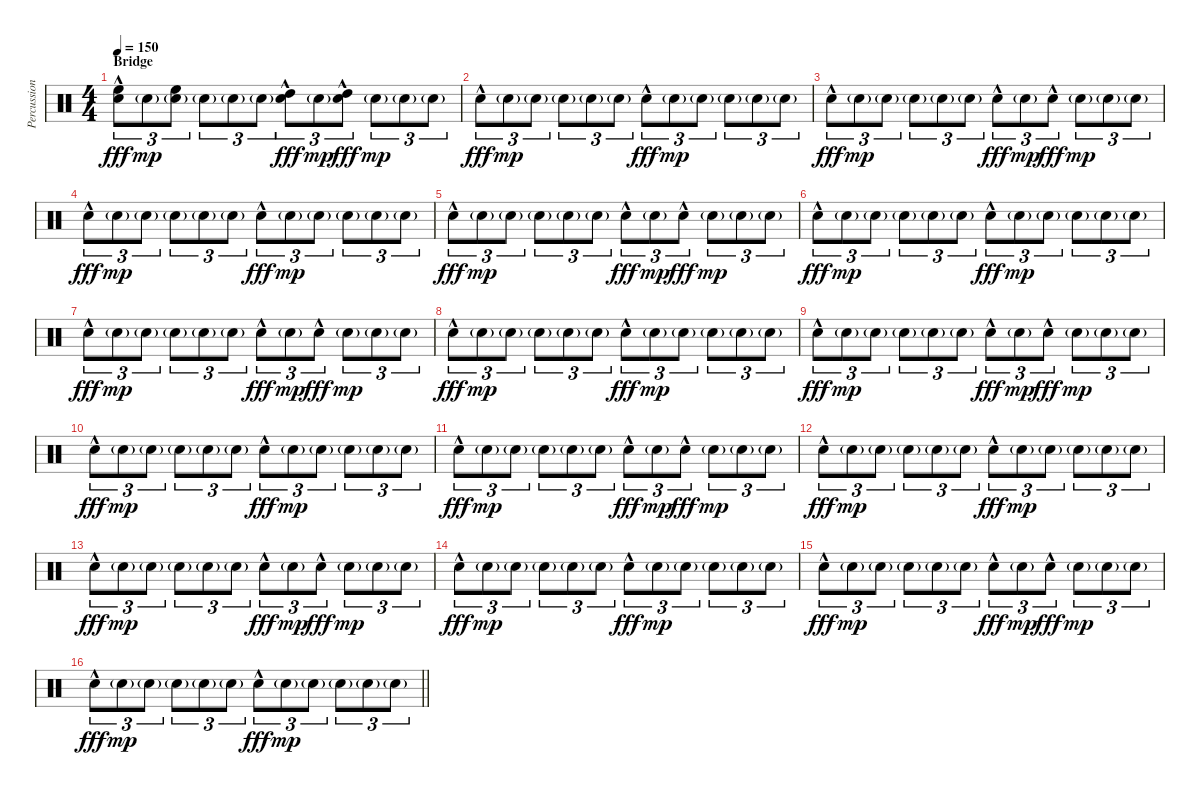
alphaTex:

\track ("Percussion" "Percussion") {instrument percussion}
\staff {score}
\articulation defaults
\ts (4 4)
\section ("" "Bridge")
\tempo 150
\clef neutral
\ks c
("High Floor Tom (hit)"{hac} "Electric Snare (hit)"{hac}).8{tu (3 2) dy fff} "Electric Snare (hit)"{g}.8{tu (3 2) dy mp} ("High Floor Tom (hit)" "Electric Snare (hit)"{g}).8{tu (3 2)} "Electric Snare (hit)"{g}.8{tu (3 2)} "Electric Snare (hit)"{g}.8{tu (3 2)} "Electric Snare (hit)"{g}.8{tu (3 2)} ("High Tom (hit)" "Electric Snare (hit)"{hac}).8{tu (3 2) dy fff} "Electric Snare (hit)"{g}.8{tu (3 2) dy mp} ("High Tom (hit)" "Electric Snare (hit)"{hac}).8{tu (3 2) dy fff} "Electric Snare (hit)"{g}.8{tu (3 2) dy mp} "Electric Snare (hit)"{g}.8{tu (3 2)} "Electric Snare (hit)"{g}.8{tu (3 2)} |
"Electric Snare (hit)"{hac}.8{tu (3 2) dy fff} "Electric Snare (hit)"{g}.8{tu (3 2) dy mp} "Electric Snare (hit)"{g}.8{tu (3 2)} "Electric Snare (hit)"{g}.8{tu (3 2)} "Electric Snare (hit)"{g}.8{tu (3 2)} "Electric Snare (hit)"{g}.8{tu (3 2)} "Electric Snare (hit)"{hac}.8{tu (3 2) dy fff} "Electric Snare (hit)"{g}.8{tu (3 2) dy mp} "Electric Snare (hit)"{g}.8{tu (3 2)} "Electric Snare (hit)"{g}.8{tu (3 2)} "Electric Snare (hit)"{g}.8{tu (3 2)} "Electric Snare (hit)"{g}.8{tu (3 2)} |
"Electric Snare (hit)"{hac}.8{tu (3 2) dy fff} "Electric Snare (hit)"{g}.8{tu (3 2) dy mp} "Electric Snare (hit)"{g}.8{tu (3 2)} "Electric Snare (hit)"{g}.8{tu (3 2)} "Electric Snare (hit)"{g}.8{tu (3 2)} "Electric Snare (hit)"{g}.8{tu (3 2)} "Electric Snare (hit)"{hac}.8{tu (3 2) dy fff} "Electric Snare (hit)"{g}.8{tu (3 2) dy mp} "Electric Snare (hit)"{hac}.8{tu (3 2) dy fff} "Electric Snare (hit)"{g}.8{tu (3 2) dy mp} "Electric Snare (hit)"{g}.8{tu (3 2)} "Electric Snare (hit)"{g}.8{tu (3 2)} |
"Electric Snare (hit)"{hac}.8{tu (3 2) dy fff} "Electric Snare (hit)"{g}.8{tu (3 2) dy mp} "Electric Snare (hit)"{g}.8{tu (3 2)} "Electric Snare (hit)"{g}.8{tu (3 2)} "Electric Snare (hit)"{g}.8{tu (3 2)} "Electric Snare (hit)"{g}.8{tu (3 2)} "Electric Snare (hit)"{hac}.8{tu (3 2) dy fff} "Electric Snare (hit)"{g}.8{tu (3 2) dy mp} "Electric Snare (hit)"{g}.8{tu (3 2)} "Electric Snare (hit)"{g}.8{tu (3 2)} "Electric Snare (hit)"{g}.8{tu (3 2)} "Electric Snare (hit)"{g}.8{tu (3 2)} |
"Electric Snare (hit)"{hac}.8{tu (3 2) dy fff} "Electric Snare (hit)"{g}.8{tu (3 2) dy mp} "Electric Snare (hit)"{g}.8{tu (3 2)} "Electric Snare (hit)"{g}.8{tu (3 2)} "Electric Snare (hit)"{g}.8{tu (3 2)} "Electric Snare (hit)"{g}.8{tu (3 2)} "Electric Snare (hit)"{hac}.8{tu (3 2) dy fff} "Electric Snare (hit)"{g}.8{tu (3 2) dy mp} "Electric Snare (hit)"{hac}.8{tu (3 2) dy fff} "Electric Snare (hit)"{g}.8{tu (3 2) dy mp} "Electric Snare (hit)"{g}.8{tu (3 2)} "Electric Snare (hit)"{g}.8{tu (3 2)} |
"Electric Snare (hit)"{hac}.8{tu (3 2) dy fff} "Electric Snare (hit)"{g}.8{tu (3 2) dy mp} "Electric Snare (hit)"{g}.8{tu (3 2)} "Electric Snare (hit)"{g}.8{tu (3 2)} "Electric Snare (hit)"{g}.8{tu (3 2)} "Electric Snare (hit)"{g}.8{tu (3 2)} "Electric Snare (hit)"{hac}.8{tu (3 2) dy fff} "Electric Snare (hit)"{g}.8{tu (3 2) dy mp} "Electric Snare (hit)"{g}.8{tu (3 2)} "Electric Snare (hit)"{g}.8{tu (3 2)} "Electric Snare (hit)"{g}.8{tu (3 2)} "Electric Snare (hit)"{g}.8{tu (3 2)} |
"Electric Snare (hit)"{hac}.8{tu (3 2) dy fff} "Electric Snare (hit)"{g}.8{tu (3 2) dy mp} "Electric Snare (hit)"{g}.8{tu (3 2)} "Electric Snare (hit)"{g}.8{tu (3 2)} "Electric Snare (hit)"{g}.8{tu (3 2)} "Electric Snare (hit)"{g}.8{tu (3 2)} "Electric Snare (hit)"{hac}.8{tu (3 2) dy fff} "Electric Snare (hit)"{g}.8{tu (3 2) dy mp} "Electric Snare (hit)"{hac}.8{tu (3 2) dy fff} "Electric Snare (hit)"{g}.8{tu (3 2) dy mp} "Electric Snare (hit)"{g}.8{tu (3 2)} "Electric Snare (hit)"{g}.8{tu (3 2)} |
"Electric Snare (hit)"{hac}.8{tu (3 2) dy fff} "Electric Snare (hit)"{g}.8{tu (3 2) dy mp} "Electric Snare (hit)"{g}.8{tu (3 2)} "Electric Snare (hit)"{g}.8{tu (3 2)} "Electric Snare (hit)"{g}.8{tu (3 2)} "Electric Snare (hit)"{g}.8{tu (3 2)} "Electric Snare (hit)"{hac}.8{tu (3 2) dy fff} "Electric Snare (hit)"{g}.8{tu (3 2) dy mp} "Electric Snare (hit)"{g}.8{tu (3 2)} "Electric Snare (hit)"{g}.8{tu (3 2)} "Electric Snare (hit)"{g}.8{tu (3 2)} "Electric Snare (hit)"{g}.8{tu (3 2)} |
"Electric Snare (hit)"{hac}.8{tu (3 2) dy fff} "Electric Snare (hit)"{g}.8{tu (3 2) dy mp} "Electric Snare (hit)"{g}.8{tu (3 2)} "Electric Snare (hit)"{g}.8{tu (3 2)} "Electric Snare (hit)"{g}.8{tu (3 2)} "Electric Snare (hit)"{g}.8{tu (3 2)} "Electric Snare (hit)"{hac}.8{tu (3 2) dy fff} "Electric Snare (hit)"{g}.8{tu (3 2) dy mp} "Electric Snare (hit)"{hac}.8{tu (3 2) dy fff} "Electric Snare (hit)"{g}.8{tu (3 2) dy mp} "Electric Snare (hit)"{g}.8{tu (3 2)} "Electric Snare (hit)"{g}.8{tu (3 2)} |
"Electric Snare (hit)"{hac}.8{tu (3 2) dy fff} "Electric Snare (hit)"{g}.8{tu (3 2) dy mp} "Electric Snare (hit)"{g}.8{tu (3 2)} "Electric Snare (hit)"{g}.8{tu (3 2)} "Electric Snare (hit)"{g}.8{tu (3 2)} "Electric Snare (hit)"{g}.8{tu (3 2)} "Electric Snare (hit)"{hac}.8{tu (3 2) dy fff} "Electric Snare (hit)"{g}.8{tu (3 2) dy mp} "Electric Snare (hit)"{g}.8{tu (3 2)} "Electric Snare (hit)"{g}.8{tu (3 2)} "Electric Snare (hit)"{g}.8{tu (3 2)} "Electric Snare (hit)"{g}.8{tu (3 2)} |
"Electric Snare (hit)"{hac}.8{tu (3 2) dy fff} "Electric Snare (hit)"{g}.8{tu (3 2) dy mp} "Electric Snare (hit)"{g}.8{tu (3 2)} "Electric Snare (hit)"{g}.8{tu (3 2)} "Electric Snare (hit)"{g}.8{tu (3 2)} "Electric Snare (hit)"{g}.8{tu (3 2)} "Electric Snare (hit)"{hac}.8{tu (3 2) dy fff} "Electric Snare (hit)"{g}.8{tu (3 2) dy mp} "Electric Snare (hit)"{hac}.8{tu (3 2) dy fff} "Electric Snare (hit)"{g}.8{tu (3 2) dy mp} "Electric Snare (hit)"{g}.8{tu (3 2)} "Electric Snare (hit)"{g}.8{tu (3 2)} |
"Electric Snare (hit)"{hac}.8{tu (3 2) dy fff} "Electric Snare (hit)"{g}.8{tu (3 2) dy mp} "Electric Snare (hit)"{g}.8{tu (3 2)} "Electric Snare (hit)"{g}.8{tu (3 2)} "Electric Snare (hit)"{g}.8{tu (3 2)} "Electric Snare (hit)"{g}.8{tu (3 2)} "Electric Snare (hit)"{hac}.8{tu (3 2) dy fff} "Electric Snare (hit)"{g}.8{tu (3 2) dy mp} "Electric Snare (hit)"{g}.8{tu (3 2)} "Electric Snare (hit)"{g}.8{tu (3 2)} "Electric Snare (hit)"{g}.8{tu (3 2)} "Electric Snare (hit)"{g}.8{tu (3 2)} |
"Electric Snare (hit)"{hac}.8{tu (3 2) dy fff} "Electric Snare (hit)"{g}.8{tu (3 2) dy mp} "Electric Snare (hit)"{g}.8{tu (3 2)} "Electric Snare (hit)"{g}.8{tu (3 2)} "Electric Snare (hit)"{g}.8{tu (3 2)} "Electric Snare (hit)"{g}.8{tu (3 2)} "Electric Snare (hit)"{hac}.8{tu (3 2) dy fff} "Electric Snare (hit)"{g}.8{tu (3 2) dy mp} "Electric Snare (hit)"{hac}.8{tu (3 2) dy fff} "Electric Snare (hit)"{g}.8{tu (3 2) dy mp} "Electric Snare (hit)"{g}.8{tu (3 2)} "Electric Snare (hit)"{g}.8{tu (3 2)} |
"Electric Snare (hit)"{hac}.8{tu (3 2) dy fff} "Electric Snare (hit)"{g}.8{tu (3 2) dy mp} "Electric Snare (hit)"{g}.8{tu (3 2)} "Electric Snare (hit)"{g}.8{tu (3 2)} "Electric Snare (hit)"{g}.8{tu (3 2)} "Electric Snare (hit)"{g}.8{tu (3 2)} "Electric Snare (hit)"{hac}.8{tu (3 2) dy fff} "Electric Snare (hit)"{g}.8{tu (3 2) dy mp} "Electric Snare (hit)"{g}.8{tu (3 2)} "Electric Snare (hit)"{g}.8{tu (3 2)} "Electric Snare (hit)"{g}.8{tu (3 2)} "Electric Snare (hit)"{g}.8{tu (3 2)} |
"Electric Snare (hit)"{hac}.8{tu (3 2) dy fff} "Electric Snare (hit)"{g}.8{tu (3 2) dy mp} "Electric Snare (hit)"{g}.8{tu (3 2)} "Electric Snare (hit)"{g}.8{tu (3 2)} "Electric Snare (hit)"{g}.8{tu (3 2)} "Electric Snare (hit)"{g}.8{tu (3 2)} "Electric Snare (hit)"{hac}.8{tu (3 2) dy fff} "Electric Snare (hit)"{g}.8{tu (3 2) dy mp} "Electric Snare (hit)"{hac}.8{tu (3 2) dy fff} "Electric Snare (hit)"{g}.8{tu (3 2) dy mp} "Electric Snare (hit)"{g}.8{tu (3 2)} "Electric Snare (hit)"{g}.8{tu (3 2)} |
\barLineRight lightlight "Electric Snare (hit)"{hac}.8{tu (3 2) dy fff} "Electric Snare (hit)"{g}.8{tu (3 2) dy mp} "Electric Snare (hit)"{g}.8{tu (3 2)} "Electric Snare (hit)"{g}.8{tu (3 2)} "Electric Snare (hit)"{g}.8{tu (3 2)} "Electric Snare (hit)"{g}.8{tu (3 2)} "Electric Snare (hit)"{hac}.8{tu (3 2) dy fff} "Electric Snare (hit)"{g}.8{tu (3 2) dy mp} "Electric Snare (hit)"{g}.8{tu (3 2)} "Electric Snare (hit)"{g}.8{tu (3 2)} "Electric Snare (hit)"{g}.8{tu (3 2)} "Electric Snare (hit)"{g}.8{tu (3 2)}
